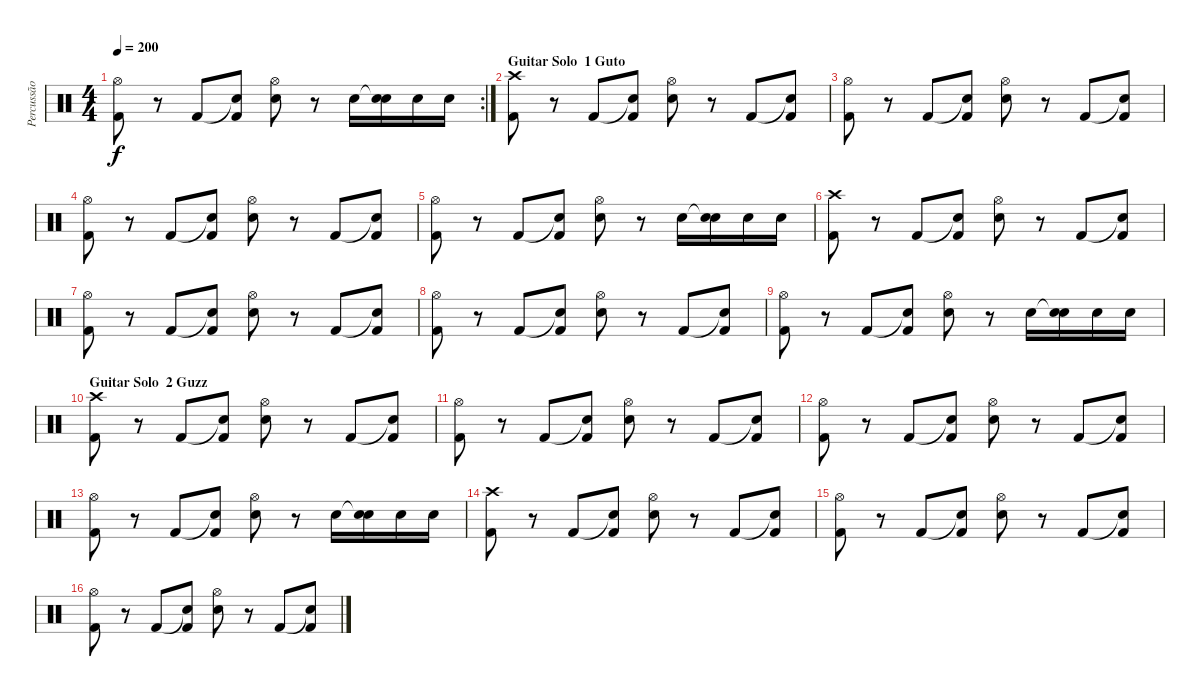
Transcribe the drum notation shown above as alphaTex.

\track ("Percussão" "Percussão") {instrument percussion}
\staff {score}
\articulation defaults
\rc 2
\ts (4 4)
\tempo 200
\clef neutral
\ks c
("Hi-Hat (open)" "Kick (hit) 2").8{dy f} r.8 "Kick (hit) 2".8 ("Snare (hit)"{t} "Kick (hit) 2").8 ("Hi-Hat (open)" "Electric Snare (hit)").8 r.8 "Electric Snare (hit)".16 ("Snare (hit)"{t} "Electric Snare (hit)").16 "Electric Snare (hit)".16 "Electric Snare (hit)".16 |
\section ("" "Guitar Solo  1 Guto")
("Crash high (hit)" "Kick (hit) 2").8 r.8 "Kick (hit) 2".8 ("Snare (hit)"{t} "Kick (hit) 2").8 ("Hi-Hat (open)" "Electric Snare (hit)").8 r.8 "Kick (hit) 2".8 ("Snare (hit)"{t} "Kick (hit) 2").8 |
("Hi-Hat (open)" "Kick (hit) 2").8 r.8 "Kick (hit) 2".8 ("Snare (hit)"{t} "Kick (hit) 2").8 ("Hi-Hat (open)" "Electric Snare (hit)").8 r.8 "Kick (hit) 2".8 ("Snare (hit)"{t} "Kick (hit) 2").8 |
("Hi-Hat (open)" "Kick (hit) 2").8 r.8 "Kick (hit) 2".8 ("Snare (hit)"{t} "Kick (hit) 2").8 ("Hi-Hat (open)" "Electric Snare (hit)").8 r.8 "Kick (hit) 2".8 ("Snare (hit)"{t} "Kick (hit) 2").8 |
("Hi-Hat (open)" "Kick (hit) 2").8 r.8 "Kick (hit) 2".8 ("Snare (hit)"{t} "Kick (hit) 2").8 ("Hi-Hat (open)" "Electric Snare (hit)").8 r.8 "Electric Snare (hit)".16 ("Snare (hit)"{t} "Electric Snare (hit)").16 "Electric Snare (hit)".16 "Electric Snare (hit)".16 |
("Crash high (hit)" "Kick (hit) 2").8 r.8 "Kick (hit) 2".8 ("Snare (hit)"{t} "Kick (hit) 2").8 ("Hi-Hat (open)" "Electric Snare (hit)").8 r.8 "Kick (hit) 2".8 ("Snare (hit)"{t} "Kick (hit) 2").8 |
("Hi-Hat (open)" "Kick (hit) 2").8 r.8 "Kick (hit) 2".8 ("Snare (hit)"{t} "Kick (hit) 2").8 ("Hi-Hat (open)" "Electric Snare (hit)").8 r.8 "Kick (hit) 2".8 ("Snare (hit)"{t} "Kick (hit) 2").8 |
("Hi-Hat (open)" "Kick (hit) 2").8 r.8 "Kick (hit) 2".8 ("Snare (hit)"{t} "Kick (hit) 2").8 ("Hi-Hat (open)" "Electric Snare (hit)").8 r.8 "Kick (hit) 2".8 ("Snare (hit)"{t} "Kick (hit) 2").8 |
("Hi-Hat (open)" "Kick (hit) 2").8 r.8 "Kick (hit) 2".8 ("Snare (hit)"{t} "Kick (hit) 2").8 ("Hi-Hat (open)" "Electric Snare (hit)").8 r.8 "Electric Snare (hit)".16 ("Snare (hit)"{t} "Electric Snare (hit)").16 "Electric Snare (hit)".16 "Electric Snare (hit)".16 |
\section ("" "Guitar Solo  2 Guzz")
("Crash high (hit)" "Kick (hit) 2").8 r.8 "Kick (hit) 2".8 ("Snare (hit)"{t} "Kick (hit) 2").8 ("Hi-Hat (open)" "Electric Snare (hit)").8 r.8 "Kick (hit) 2".8 ("Snare (hit)"{t} "Kick (hit) 2").8 |
("Hi-Hat (open)" "Kick (hit) 2").8 r.8 "Kick (hit) 2".8 ("Snare (hit)"{t} "Kick (hit) 2").8 ("Hi-Hat (open)" "Electric Snare (hit)").8 r.8 "Kick (hit) 2".8 ("Snare (hit)"{t} "Kick (hit) 2").8 |
("Hi-Hat (open)" "Kick (hit) 2").8 r.8 "Kick (hit) 2".8 ("Snare (hit)"{t} "Kick (hit) 2").8 ("Hi-Hat (open)" "Electric Snare (hit)").8 r.8 "Kick (hit) 2".8 ("Snare (hit)"{t} "Kick (hit) 2").8 |
("Hi-Hat (open)" "Kick (hit) 2").8 r.8 "Kick (hit) 2".8 ("Snare (hit)"{t} "Kick (hit) 2").8 ("Hi-Hat (open)" "Electric Snare (hit)").8 r.8 "Electric Snare (hit)".16 ("Snare (hit)"{t} "Electric Snare (hit)").16 "Electric Snare (hit)".16 "Electric Snare (hit)".16 |
("Crash high (hit)" "Kick (hit) 2").8 r.8 "Kick (hit) 2".8 ("Snare (hit)"{t} "Kick (hit) 2").8 ("Hi-Hat (open)" "Electric Snare (hit)").8 r.8 "Kick (hit) 2".8 ("Snare (hit)"{t} "Kick (hit) 2").8 |
("Hi-Hat (open)" "Kick (hit) 2").8 r.8 "Kick (hit) 2".8 ("Snare (hit)"{t} "Kick (hit) 2").8 ("Hi-Hat (open)" "Electric Snare (hit)").8 r.8 "Kick (hit) 2".8 ("Snare (hit)"{t} "Kick (hit) 2").8 |
("Hi-Hat (open)" "Kick (hit) 2").8 r.8 "Kick (hit) 2".8 ("Snare (hit)"{t} "Kick (hit) 2").8 ("Hi-Hat (open)" "Electric Snare (hit)").8 r.8 "Kick (hit) 2".8 ("Snare (hit)"{t} "Kick (hit) 2").8
